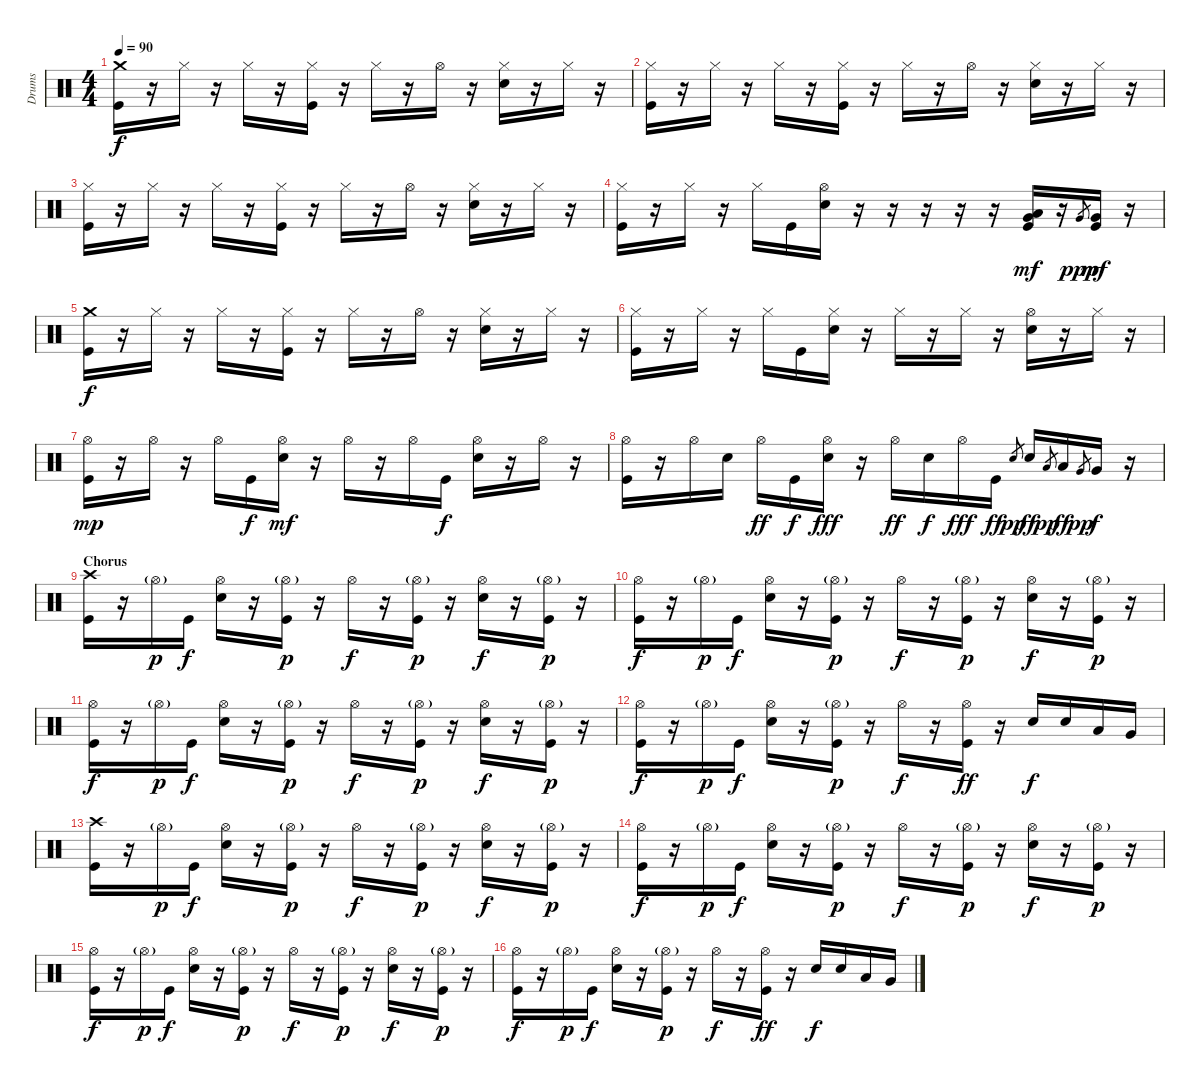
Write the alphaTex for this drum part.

\track ("Drums" "Drums") {instrument percussion}
\staff {score}
\articulation defaults
\ts (4 4)
\tempo 90
\clef neutral
\ks c
("Crash medium (hit)" "Kick (hit)").16{dy f} r.16 "Hi-Hat (closed)".16 r.16 "Hi-Hat (closed)".16 r.16 ("Hi-Hat (closed)" "Kick (hit)").16 r.16 "Hi-Hat (closed)".16 r.16 "Hi-Hat (open)".16 r.16 ("Hi-Hat (closed)" "Snare (hit) 2").16 r.16 "Hi-Hat (closed)".16 r.16 |
("Hi-Hat (closed)" "Kick (hit)").16 r.16 "Hi-Hat (closed)".16 r.16 "Hi-Hat (closed)".16 r.16 ("Hi-Hat (closed)" "Kick (hit)").16 r.16 "Hi-Hat (closed)".16 r.16 "Hi-Hat (open)".16 r.16 ("Hi-Hat (closed)" "Snare (hit) 2").16 r.16 "Hi-Hat (closed)".16 r.16 |
("Hi-Hat (closed)" "Kick (hit)").16 r.16 "Hi-Hat (closed)".16 r.16 "Hi-Hat (closed)".16 r.16 ("Hi-Hat (closed)" "Kick (hit)").16 r.16 "Hi-Hat (closed)".16 r.16 "Hi-Hat (open)".16 r.16 ("Hi-Hat (closed)" "Snare (hit) 2").16 r.16 "Hi-Hat (closed)".16 r.16 |
("Hi-Hat (closed)" "Kick (hit)").16 r.16 "Hi-Hat (closed)".16 r.16 "Hi-Hat (closed)".16 "Kick (hit)".16 ("Hi-Hat (open)" "Snare (hit) 2").16 r.16 r.16 r.16 r.16 r.16 ("Low Tom (hit)" "Very Low Tom (hit)" "Kick (hit)").16{dy mf} r.16 "Very Low Tom (hit)".8{gr dy ppp} ("Very Low Tom (hit)" "Kick (hit)").16{dy mf} r.16 |
("Crash medium (hit)" "Kick (hit)").16{dy f} r.16 "Hi-Hat (closed)".16 r.16 "Hi-Hat (closed)".16 r.16 ("Hi-Hat (closed)" "Kick (hit)").16 r.16 "Hi-Hat (closed)".16 r.16 "Hi-Hat (open)".16 r.16 ("Hi-Hat (closed)" "Snare (hit) 2").16 r.16 "Hi-Hat (closed)".16 r.16 |
("Hi-Hat (closed)" "Kick (hit)").16 r.16 "Hi-Hat (closed)".16 r.16 "Hi-Hat (closed)".16 "Kick (hit)".16 ("Hi-Hat (closed)" "Snare (hit) 2").16 r.16 "Hi-Hat (closed)".16 r.16 "Hi-Hat (closed)".16 r.16 ("Hi-Hat (open)" "Snare (hit) 2").16 r.16 "Hi-Hat (closed)".16 r.16 |
("Hi-Hat (open)" "Kick (hit)").16{dy mp} r.16 "Hi-Hat (open)".16 r.16 "Hi-Hat (open)".16 "Kick (hit)".16{dy f} ("Hi-Hat (open)" "Snare (hit) 2").16{dy mf} r.16 "Hi-Hat (open)".16 r.16 "Hi-Hat (open)".16 "Kick (hit)".16{dy f} ("Hi-Hat (open)" "Snare (hit) 2").16 r.16 "Hi-Hat (open)".16 r.16 |
("Hi-Hat (open)" "Kick (hit)").16 r.16 "Hi-Hat (open)".16 "Snare (hit) 2".16 "Hi-Hat (open)".16{dy ff} "Kick (hit)".16{dy f} ("Hi-Hat (open)" "Snare (hit) 2").16{dy fff} r.16 "Hi-Hat (open)".16{dy ff} "Snare (hit) 2".16{dy f} "Hi-Hat (open)".16{dy fff} "Kick (hit)".16{dy ff} "Snare (hit) 2".8{gr dy pp} "Snare (hit) 2".16{dy ff} "Low Tom (hit)".8{gr dy pp} "Low Tom (hit)".16{dy ff} "Very Low Tom (hit)".8{gr dy pp} "Very Low Tom (hit)".16{dy f} r.16 |
\section ("" "Chorus")
("Crash high (hit)" "Kick (hit)").16 r.16 "Hi-Hat (open)"{g}.16{dy p} "Kick (hit)".16{dy f} ("Hi-Hat (open)" "Snare (hit) 2").16 r.16 ("Hi-Hat (open)"{g} "Kick (hit)").16{dy p} r.16 "Hi-Hat (open)".16{dy f} r.16 ("Hi-Hat (open)"{g} "Kick (hit)").16{dy p} r.16 ("Hi-Hat (open)" "Snare (hit) 2").16{dy f} r.16 ("Hi-Hat (open)"{g} "Kick (hit)").16{dy p} r.16 |
("Hi-Hat (open)" "Kick (hit)").16{dy f} r.16 "Hi-Hat (open)"{g}.16{dy p} "Kick (hit)".16{dy f} ("Hi-Hat (open)" "Snare (hit) 2").16 r.16 ("Hi-Hat (open)"{g} "Kick (hit)").16{dy p} r.16 "Hi-Hat (open)".16{dy f} r.16 ("Hi-Hat (open)"{g} "Kick (hit)").16{dy p} r.16 ("Hi-Hat (open)" "Snare (hit) 2").16{dy f} r.16 ("Hi-Hat (open)"{g} "Kick (hit)").16{dy p} r.16 |
("Hi-Hat (open)" "Kick (hit)").16{dy f} r.16 "Hi-Hat (open)"{g}.16{dy p} "Kick (hit)".16{dy f} ("Hi-Hat (open)" "Snare (hit) 2").16 r.16 ("Hi-Hat (open)"{g} "Kick (hit)").16{dy p} r.16 "Hi-Hat (open)".16{dy f} r.16 ("Hi-Hat (open)"{g} "Kick (hit)").16{dy p} r.16 ("Hi-Hat (open)" "Snare (hit) 2").16{dy f} r.16 ("Hi-Hat (open)"{g} "Kick (hit)").16{dy p} r.16 |
("Hi-Hat (open)" "Kick (hit)").16{dy f} r.16 "Hi-Hat (open)"{g}.16{dy p} "Kick (hit)".16{dy f} ("Hi-Hat (open)" "Snare (hit) 2").16 r.16 ("Hi-Hat (open)"{g} "Kick (hit)").16{dy p} r.16 "Hi-Hat (open)".16{dy f} r.16 ("Hi-Hat (open)" "Kick (hit)").16{dy ff} r.16 "Snare (hit) 2".16{dy f} "Snare (hit) 2".16 "Low Tom (hit)".16 "Very Low Tom (hit)".16 |
("Crash high (hit)" "Kick (hit)").16 r.16 "Hi-Hat (open)"{g}.16{dy p} "Kick (hit)".16{dy f} ("Hi-Hat (open)" "Snare (hit) 2").16 r.16 ("Hi-Hat (open)"{g} "Kick (hit)").16{dy p} r.16 "Hi-Hat (open)".16{dy f} r.16 ("Hi-Hat (open)"{g} "Kick (hit)").16{dy p} r.16 ("Hi-Hat (open)" "Snare (hit) 2").16{dy f} r.16 ("Hi-Hat (open)"{g} "Kick (hit)").16{dy p} r.16 |
("Hi-Hat (open)" "Kick (hit)").16{dy f} r.16 "Hi-Hat (open)"{g}.16{dy p} "Kick (hit)".16{dy f} ("Hi-Hat (open)" "Snare (hit) 2").16 r.16 ("Hi-Hat (open)"{g} "Kick (hit)").16{dy p} r.16 "Hi-Hat (open)".16{dy f} r.16 ("Hi-Hat (open)"{g} "Kick (hit)").16{dy p} r.16 ("Hi-Hat (open)" "Snare (hit) 2").16{dy f} r.16 ("Hi-Hat (open)"{g} "Kick (hit)").16{dy p} r.16 |
("Hi-Hat (open)" "Kick (hit)").16{dy f} r.16 "Hi-Hat (open)"{g}.16{dy p} "Kick (hit)".16{dy f} ("Hi-Hat (open)" "Snare (hit) 2").16 r.16 ("Hi-Hat (open)"{g} "Kick (hit)").16{dy p} r.16 "Hi-Hat (open)".16{dy f} r.16 ("Hi-Hat (open)"{g} "Kick (hit)").16{dy p} r.16 ("Hi-Hat (open)" "Snare (hit) 2").16{dy f} r.16 ("Hi-Hat (open)"{g} "Kick (hit)").16{dy p} r.16 |
("Hi-Hat (open)" "Kick (hit)").16{dy f} r.16 "Hi-Hat (open)"{g}.16{dy p} "Kick (hit)".16{dy f} ("Hi-Hat (open)" "Snare (hit) 2").16 r.16 ("Hi-Hat (open)"{g} "Kick (hit)").16{dy p} r.16 "Hi-Hat (open)".16{dy f} r.16 ("Hi-Hat (open)" "Kick (hit)").16{dy ff} r.16 "Snare (hit) 2".16{dy f} "Snare (hit) 2".16 "Low Tom (hit)".16 "Very Low Tom (hit)".16
